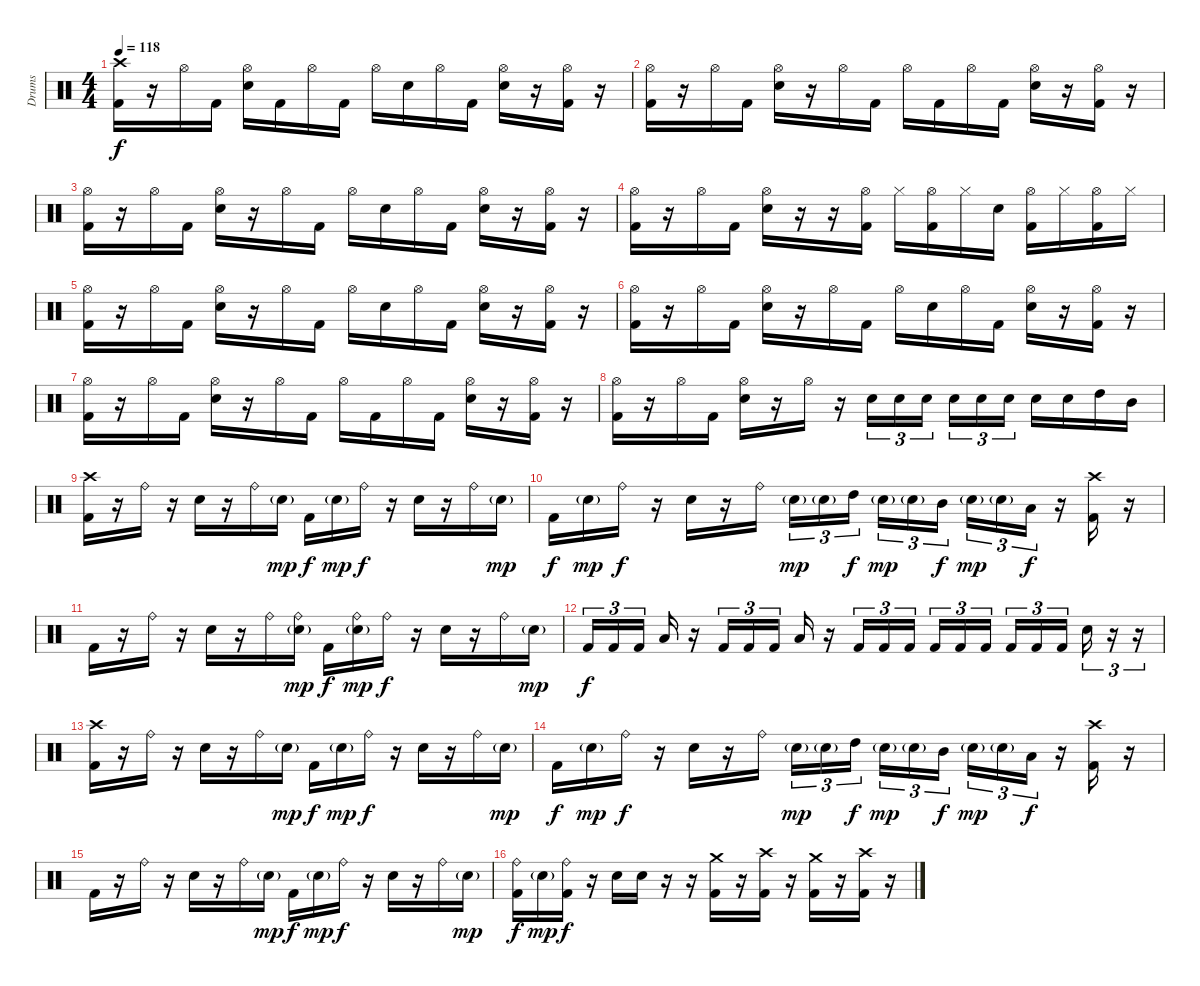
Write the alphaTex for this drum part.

\track ("Drums" "Drums") {instrument percussion}
\staff {score}
\articulation defaults
\ts (4 4)
\tempo 118
\clef neutral
\ks c
("Crash high (hit)" "Kick (hit) 2").16{dy f} r.16 "Hi-Hat (open)".16 "Kick (hit) 2".16 ("Snare (hit) 2" "Hi-Hat (open)").16 "Kick (hit) 2".16 "Hi-Hat (open)".16 "Kick (hit) 2".16 "Hi-Hat (open)".16 "Snare (hit) 2".16 "Hi-Hat (open)".16 "Kick (hit) 2".16 ("Snare (hit) 2" "Hi-Hat (open)").16 r.16 ("Hi-Hat (open)" "Kick (hit) 2").16 r.16 |
("Hi-Hat (open)" "Kick (hit) 2").16 r.16 "Hi-Hat (open)".16 "Kick (hit) 2".16 ("Snare (hit) 2" "Hi-Hat (open)").16 r.16 "Hi-Hat (open)".16 "Kick (hit) 2".16 "Hi-Hat (open)".16 "Kick (hit) 2".16 "Hi-Hat (open)".16 "Kick (hit) 2".16 ("Snare (hit) 2" "Hi-Hat (open)").16 r.16 ("Hi-Hat (open)" "Kick (hit) 2").16 r.16 |
("Hi-Hat (open)" "Kick (hit) 2").16 r.16 "Hi-Hat (open)".16 "Kick (hit) 2".16 ("Snare (hit) 2" "Hi-Hat (open)").16 r.16 "Hi-Hat (open)".16 "Kick (hit) 2".16 "Hi-Hat (open)".16 "Snare (hit) 2".16 "Hi-Hat (open)".16 "Kick (hit) 2".16 ("Snare (hit) 2" "Hi-Hat (open)").16 r.16 ("Hi-Hat (open)" "Kick (hit) 2").16 r.16 |
("Hi-Hat (open)" "Kick (hit) 2").16 r.16 "Hi-Hat (open)".16 "Kick (hit) 2".16 ("Snare (hit) 2" "Hi-Hat (open)").16 r.16 r.16 ("Hi-Hat (open)" "Kick (hit) 2").16 "Hi-Hat (closed)".16 ("Hi-Hat (open)" "Kick (hit) 2").16 "Hi-Hat (closed)".16 "Snare (hit) 2".16 ("Hi-Hat (open)" "Kick (hit) 2").16 "Hi-Hat (closed)".16 ("Hi-Hat (open)" "Kick (hit) 2").16 "Hi-Hat (closed)".16 |
("Hi-Hat (open)" "Kick (hit) 2").16 r.16 "Hi-Hat (open)".16 "Kick (hit) 2".16 ("Snare (hit) 2" "Hi-Hat (open)").16 r.16 "Hi-Hat (open)".16 "Kick (hit) 2".16 "Hi-Hat (open)".16 "Snare (hit) 2".16 "Hi-Hat (open)".16 "Kick (hit) 2".16 ("Snare (hit) 2" "Hi-Hat (open)").16 r.16 ("Hi-Hat (open)" "Kick (hit) 2").16 r.16 |
("Hi-Hat (open)" "Kick (hit) 2").16 r.16 "Hi-Hat (open)".16 "Kick (hit) 2".16 ("Snare (hit) 2" "Hi-Hat (open)").16 r.16 "Hi-Hat (open)".16 "Kick (hit) 2".16 "Hi-Hat (open)".16 "Snare (hit) 2".16 "Hi-Hat (open)".16 "Kick (hit) 2".16 ("Snare (hit) 2" "Hi-Hat (open)").16 r.16 ("Hi-Hat (open)" "Kick (hit) 2").16 r.16 |
("Hi-Hat (open)" "Kick (hit) 2").16 r.16 "Hi-Hat (open)".16 "Kick (hit) 2".16 ("Snare (hit) 2" "Hi-Hat (open)").16 r.16 "Hi-Hat (open)".16 "Kick (hit) 2".16 "Hi-Hat (open)".16 "Kick (hit) 2".16 "Hi-Hat (open)".16 "Kick (hit) 2".16 ("Snare (hit) 2" "Hi-Hat (open)").16 r.16 ("Hi-Hat (open)" "Kick (hit) 2").16 r.16 |
("Hi-Hat (open)" "Kick (hit) 2").16 r.16 "Hi-Hat (open)".16 "Kick (hit) 2".16 ("Snare (hit) 2" "Hi-Hat (open)").16 r.16 "Hi-Hat (open)".16 r.16 "Snare (hit) 2".16{tu (3 2)} "Snare (hit) 2".16{tu (3 2)} "Snare (hit) 2".16{tu (3 2) beam splitsecondary} "Snare (hit) 2".16{tu (3 2)} "Snare (hit) 2".16{tu (3 2)} "Snare (hit) 2".16{tu (3 2)} "Snare (hit) 2".16 "Snare (hit) 2".16 "High Tom (hit)".16 "Mid Tom (hit)".16 |
("Kick (hit) 2" "Crash high (hit)").16 r.16 "Ride (bell)".16 r.16 "Snare (hit) 2".16 r.16 "Ride (bell)".16 "Snare (hit) 2"{g}.16{dy mp} "Kick (hit) 2".16{dy f} "Snare (hit) 2"{g}.16{dy mp} "Ride (bell)".16{dy f} r.16 "Snare (hit) 2".16 r.16 "Ride (bell)".16 "Snare (hit) 2"{g}.16{dy mp} |
"Kick (hit) 2".16{dy f} "Snare (hit) 2"{g}.16{dy mp} "Ride (bell)".16{dy f} r.16 "Snare (hit) 2".16 r.16 "Ride (bell)".16{beam splitsecondary} "Snare (hit) 2"{g}.16{tu (3 2) dy mp} "Snare (hit) 2"{g}.16{tu (3 2)} "High Tom (hit)".16{tu (3 2) dy f beam splitsecondary} "Snare (hit) 2"{g}.16{tu (3 2) dy mp} "Snare (hit) 2"{g}.16{tu (3 2)} "Mid Tom (hit)".16{tu (3 2) dy f beam splitsecondary} "Snare (hit) 2"{g}.16{tu (3 2) dy mp} "Snare (hit) 2"{g}.16{tu (3 2)} "Low Tom (hit)".16{tu (3 2) dy f} r.16 ("Kick (hit) 2" "Crash high (hit)").16 r.16 |
"Kick (hit) 2".16 r.16 "Ride (bell)".16 r.16 "Snare (hit) 2".16 r.16 "Ride (bell)".16 ("Snare (hit) 2"{g} "Ride (bell)").16{dy mp} "Kick (hit) 2".16{dy f} ("Snare (hit) 2"{g} "Ride (bell)").16{dy mp} "Ride (bell)".16{dy f} r.16 "Snare (hit) 2".16 r.16 "Ride (bell)".16 "Snare (hit) 2"{g}.16{dy mp} |
"Kick (hit) 2".16{tu (3 2) dy f} "Kick (hit) 2".16{tu (3 2)} "Kick (hit) 2".16{tu (3 2) beam splitsecondary} "Low Tom (hit)".16 r.16 "Kick (hit) 2".16{tu (3 2)} "Kick (hit) 2".16{tu (3 2)} "Kick (hit) 2".16{tu (3 2) beam splitsecondary} "Low Tom (hit)".16 r.16 "Kick (hit) 2".16{tu (3 2)} "Kick (hit) 2".16{tu (3 2)} "Kick (hit) 2".16{tu (3 2) beam splitsecondary} "Kick (hit) 2".16{tu (3 2)} "Kick (hit) 2".16{tu (3 2)} "Kick (hit) 2".16{tu (3 2)} "Kick (hit) 2".16{tu (3 2)} "Kick (hit) 2".16{tu (3 2)} "Kick (hit) 2".16{tu (3 2) beam splitsecondary} "Snare (hit) 2".16{tu (3 2)} r.16{tu (3 2)} r.16{tu (3 2)} |
("Kick (hit) 2" "Crash high (hit)").16 r.16 "Ride (bell)".16 r.16 "Snare (hit) 2".16 r.16 "Ride (bell)".16 "Snare (hit) 2"{g}.16{dy mp} "Kick (hit) 2".16{dy f} "Snare (hit) 2"{g}.16{dy mp} "Ride (bell)".16{dy f} r.16 "Snare (hit) 2".16 r.16 "Ride (bell)".16 "Snare (hit) 2"{g}.16{dy mp} |
"Kick (hit) 2".16{dy f} "Snare (hit) 2"{g}.16{dy mp} "Ride (bell)".16{dy f} r.16 "Snare (hit) 2".16 r.16 "Ride (bell)".16{beam splitsecondary} "Snare (hit) 2"{g}.16{tu (3 2) dy mp} "Snare (hit) 2"{g}.16{tu (3 2)} "High Tom (hit)".16{tu (3 2) dy f beam splitsecondary} "Snare (hit) 2"{g}.16{tu (3 2) dy mp} "Snare (hit) 2"{g}.16{tu (3 2)} "Mid Tom (hit)".16{tu (3 2) dy f beam splitsecondary} "Snare (hit) 2"{g}.16{tu (3 2) dy mp} "Snare (hit) 2"{g}.16{tu (3 2)} "Low Tom (hit)".16{tu (3 2) dy f} r.16 ("Kick (hit) 2" "Crash high (hit)").16 r.16 |
"Kick (hit) 2".16 r.16 "Ride (bell)".16 r.16 "Snare (hit) 2".16 r.16 "Ride (bell)".16 "Snare (hit) 2"{g}.16{dy mp} "Kick (hit) 2".16{dy f} "Snare (hit) 2"{g}.16{dy mp} "Ride (bell)".16{dy f} r.16 "Snare (hit) 2".16 r.16 "Ride (bell)".16 "Snare (hit) 2"{g}.16{dy mp} |
("Kick (hit) 2" "Ride (bell)").16{dy f} "Snare (hit) 2"{g}.16{dy mp} ("Kick (hit) 2" "Ride (bell)").16{dy f} r.16 "Snare (hit) 2".16 "Snare (hit) 2".16 r.16 r.16 ("Kick (hit) 2" "Crash medium (hit)").16 r.16 ("Kick (hit) 2" "Crash high (hit)").16 r.16 ("Kick (hit) 2" "Crash medium (hit)").16 r.16 ("Kick (hit) 2" "Crash high (hit)").16 r.16
